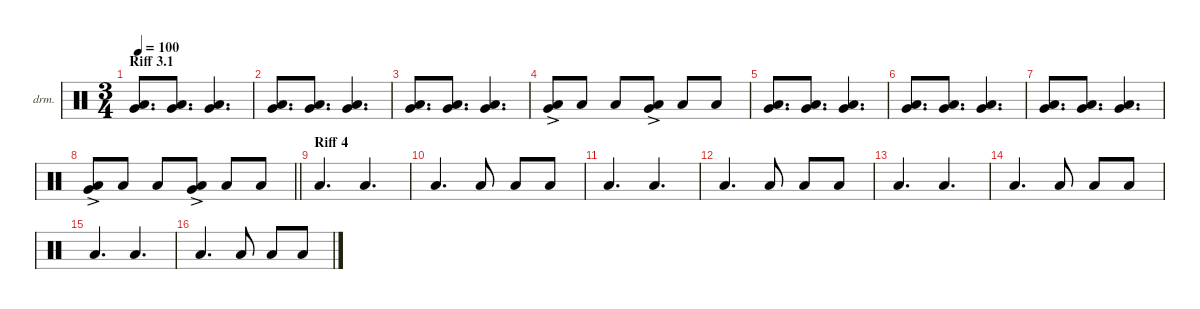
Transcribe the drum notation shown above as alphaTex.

\defaultSystemsLayout 4
\hideDynamics
\bracketExtendMode nobrackets
\firstSystemTrackNameOrientation horizontal
\otherSystemsTrackNameOrientation horizontal
\track ("Dondervuyscht" "drm.") {instrument percussion}
\staff {score}
\articulation defaults
\ts (3 4)
\section ("" "Riff 3.1")
\tempo 100
\clef neutral
\ks c
("Very Low Tom (hit)" "Low Floor Tom (hit)").8{d dy f} ("Very Low Tom (hit)" "Low Floor Tom (hit)").8{d} ("Very Low Tom (hit)" "Low Floor Tom (hit)").4{d} |
("Very Low Tom (hit)" "Low Floor Tom (hit)").8{d} ("Very Low Tom (hit)" "Low Floor Tom (hit)").8{d} ("Very Low Tom (hit)" "Low Floor Tom (hit)").4{d} |
("Very Low Tom (hit)" "Low Floor Tom (hit)").8{d} ("Very Low Tom (hit)" "Low Floor Tom (hit)").8{d} ("Very Low Tom (hit)" "Low Floor Tom (hit)").4{d} |
("Very Low Tom (hit)"{ac} "Low Floor Tom (hit)"{ac}).8 "Low Floor Tom (hit)".8 "Low Floor Tom (hit)".8 ("Very Low Tom (hit)"{ac} "Low Floor Tom (hit)"{ac}).8 "Low Floor Tom (hit)".8 "Low Floor Tom (hit)".8 |
("Very Low Tom (hit)" "Low Floor Tom (hit)").8{d} ("Very Low Tom (hit)" "Low Floor Tom (hit)").8{d} ("Very Low Tom (hit)" "Low Floor Tom (hit)").4{d} |
("Very Low Tom (hit)" "Low Floor Tom (hit)").8{d} ("Very Low Tom (hit)" "Low Floor Tom (hit)").8{d} ("Very Low Tom (hit)" "Low Floor Tom (hit)").4{d} |
("Very Low Tom (hit)" "Low Floor Tom (hit)").8{d} ("Very Low Tom (hit)" "Low Floor Tom (hit)").8{d} ("Very Low Tom (hit)" "Low Floor Tom (hit)").4{d} |
\barLineRight lightlight
("Very Low Tom (hit)"{ac} "Low Floor Tom (hit)"{ac}).8 "Low Floor Tom (hit)".8 "Low Floor Tom (hit)".8 ("Very Low Tom (hit)"{ac} "Low Floor Tom (hit)"{ac}).8 "Low Floor Tom (hit)".8 "Low Floor Tom (hit)".8 |
\section ("" "Riff 4")
"Low Floor Tom (hit)".4{d} "Low Floor Tom (hit)".4{d} |
"Low Floor Tom (hit)".4{d} "Low Floor Tom (hit)".8 "Low Floor Tom (hit)".8 "Low Floor Tom (hit)".8 |
"Low Floor Tom (hit)".4{d} "Low Floor Tom (hit)".4{d} |
"Low Floor Tom (hit)".4{d} "Low Floor Tom (hit)".8 "Low Floor Tom (hit)".8 "Low Floor Tom (hit)".8 |
"Low Floor Tom (hit)".4{d} "Low Floor Tom (hit)".4{d} |
"Low Floor Tom (hit)".4{d} "Low Floor Tom (hit)".8 "Low Floor Tom (hit)".8 "Low Floor Tom (hit)".8 |
"Low Floor Tom (hit)".4{d} "Low Floor Tom (hit)".4{d} |
"Low Floor Tom (hit)".4{d} "Low Floor Tom (hit)".8 "Low Floor Tom (hit)".8 "Low Floor Tom (hit)".8
